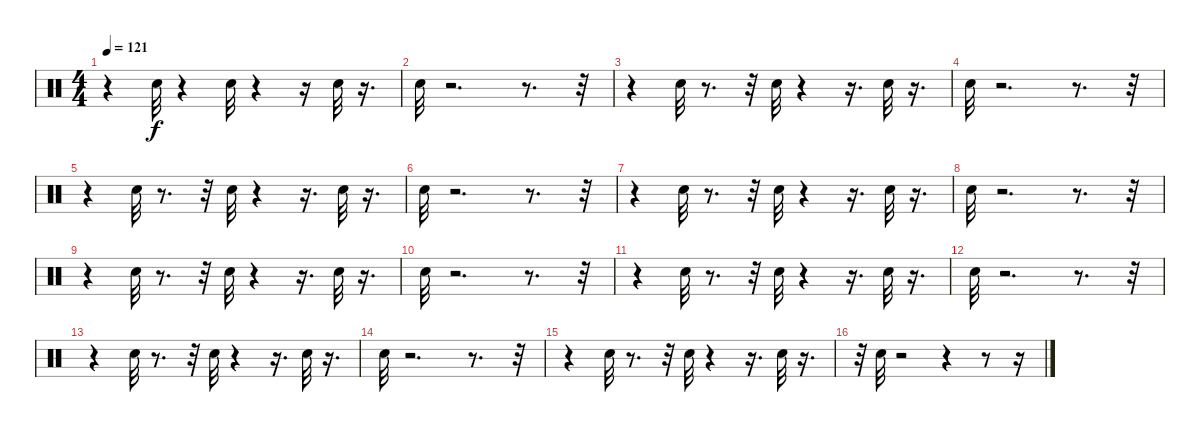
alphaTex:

\track "" {instrument percussion}
\staff {score}
\articulation defaults
\ts (4 4)
\tempo 121
\clef neutral
\ks c
r.4{dy f} "Snare (hit)".32 r.4 "Snare (hit)".32 r.4 r.16 "Snare (hit)".32 r.16{d} |
"Snare (hit)".32 r.2{d} r.8{d} r.32 |
r.4 "Snare (hit)".32 r.8{d} r.32 "Snare (hit)".32 r.4 r.16{d} "Snare (hit)".32 r.16{d} |
"Snare (hit)".32 r.2{d} r.8{d} r.32 |
r.4 "Snare (hit)".32 r.8{d} r.32 "Snare (hit)".32 r.4 r.16{d} "Snare (hit)".32 r.16{d} |
"Snare (hit)".32 r.2{d} r.8{d} r.32 |
r.4 "Snare (hit)".32 r.8{d} r.32 "Snare (hit)".32 r.4 r.16{d} "Snare (hit)".32 r.16{d} |
"Snare (hit)".32 r.2{d} r.8{d} r.32 |
r.4 "Snare (hit)".32 r.8{d} r.32 "Snare (hit)".32 r.4 r.16{d} "Snare (hit)".32 r.16{d} |
"Snare (hit)".32 r.2{d} r.8{d} r.32 |
r.4 "Snare (hit)".32 r.8{d} r.32 "Snare (hit)".32 r.4 r.16{d} "Snare (hit)".32 r.16{d} |
"Snare (hit)".32 r.2{d} r.8{d} r.32 |
r.4 "Snare (hit)".32 r.8{d} r.32 "Snare (hit)".32 r.4 r.16{d} "Snare (hit)".32 r.16{d} |
"Snare (hit)".32 r.2{d} r.8{d} r.32 |
r.4 "Snare (hit)".32 r.8{d} r.32 "Snare (hit)".32 r.4 r.16{d} "Snare (hit)".32 r.16{d} |
r.32 "Snare (hit)".32 r.2 r.4 r.8 r.16
